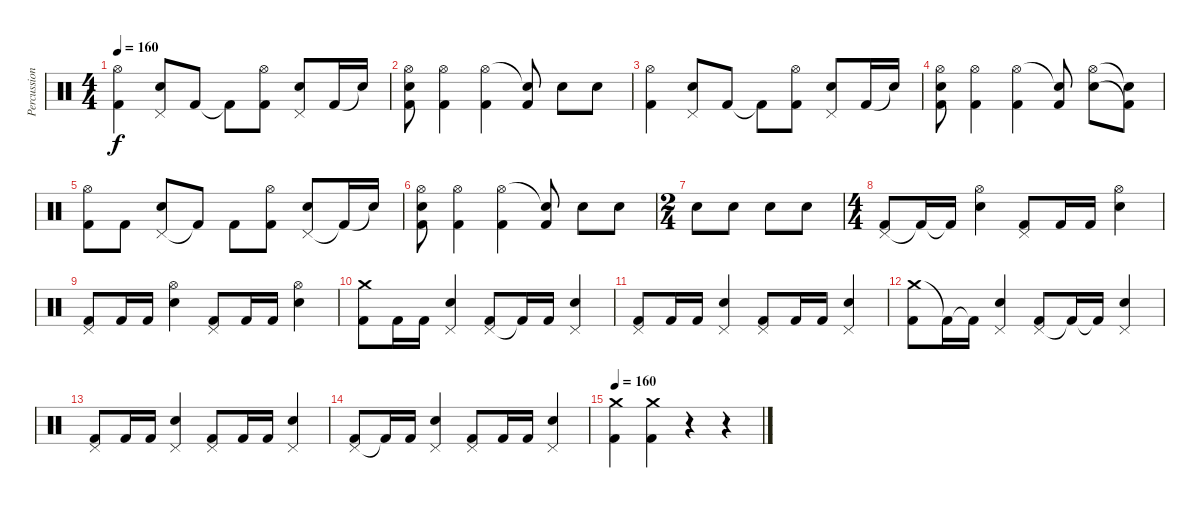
\track ("Percussion" "Percussion") {instrument percussion}
\staff {score}
\articulation defaults
\ts (4 4)
\tempo 160
\clef neutral
\ks c
("Hi-Hat (open)" "Kick (hit) 2").4{dy f} ("Pedal Hi-Hat (hit)" "Snare (hit) 2").8 "Kick (hit) 2".8 "Kick (hit) 2"{t}.8 ("Hi-Hat (open)" "Kick (hit) 2").8 ("Pedal Hi-Hat (hit)" "Snare (hit) 2").8 "Kick (hit) 2".16 "Snare (hit)"{t}.16 |
("Kick (hit) 2" "Hi-Hat (open)" "Snare (hit) 2").8 ("Hi-Hat (open)" "Kick (hit) 2").4 ("Hi-Hat (open)" "Kick (hit) 2").4 ("Snare (hit)"{t} "Kick (hit) 2").8 "Snare (hit) 2".8 "Snare (hit) 2".8 |
("Hi-Hat (open)" "Kick (hit) 2").4 ("Pedal Hi-Hat (hit)" "Snare (hit) 2").8 "Kick (hit) 2".8 "Kick (hit) 2"{t}.8 ("Hi-Hat (open)" "Kick (hit) 2").8 ("Pedal Hi-Hat (hit)" "Snare (hit) 2").8 "Kick (hit) 2".16 "Snare (hit)"{t}.16 |
("Kick (hit) 2" "Hi-Hat (open)" "Snare (hit) 2").8 ("Hi-Hat (open)" "Kick (hit) 2").4 ("Hi-Hat (open)" "Kick (hit) 2").4 ("Snare (hit)"{t} "Kick (hit) 2").8 ("Hi-Hat (open)" "Snare (hit) 2").8 ("Snare (hit)"{t} "Kick (hit) 2"{t}).8 |
("Hi-Hat (open)" "Kick (hit) 2").8 "Kick (hit) 2".8 ("Pedal Hi-Hat (hit)" "Snare (hit) 2").8 "Kick (hit) 2"{t}.8 "Kick (hit) 2".8 ("Hi-Hat (open)" "Kick (hit) 2").8 ("Pedal Hi-Hat (hit)" "Snare (hit) 2").8 "Kick (hit) 2"{t}.16 "Snare (hit)"{t}.16 |
("Kick (hit) 2" "Hi-Hat (open)" "Snare (hit) 2").8 ("Hi-Hat (open)" "Kick (hit) 2").4 ("Hi-Hat (open)" "Kick (hit) 2").4 ("Snare (hit)"{t} "Kick (hit) 2").8 "Snare (hit) 2".8 "Snare (hit) 2".8 |
\ts (2 4)
"Snare (hit) 2".8 "Snare (hit) 2".8 "Snare (hit) 2".8 "Snare (hit) 2".8 |
\ts (4 4)
("Pedal Hi-Hat (hit)" "Kick (hit) 2").8 "Kick (hit) 2"{t}.16 "Kick (hit) 2"{t}.16 ("Hi-Hat (open)" "Snare (hit) 2").4 ("Pedal Hi-Hat (hit)" "Kick (hit) 2").8 "Kick (hit) 2".16 "Kick (hit) 2".16 ("Hi-Hat (open)" "Snare (hit) 2").4 |
("Pedal Hi-Hat (hit)" "Kick (hit) 2").8 "Kick (hit) 2".16 "Kick (hit) 2".16 ("Hi-Hat (open)" "Snare (hit) 2").4 ("Pedal Hi-Hat (hit)" "Kick (hit) 2").8 "Kick (hit) 2".16 "Kick (hit) 2".16 ("Hi-Hat (open)" "Snare (hit) 2").4 |
("Crash medium (hit)" "Kick (hit) 2").8 "Kick (hit) 2".16 "Kick (hit) 2".16 ("Pedal Hi-Hat (hit)" "Snare (hit) 2").4 ("Pedal Hi-Hat (hit)" "Kick (hit) 2").8 "Kick (hit) 2"{t}.16 "Kick (hit) 2".16 ("Pedal Hi-Hat (hit)" "Snare (hit) 2").4 |
("Pedal Hi-Hat (hit)" "Kick (hit) 2").8 "Kick (hit) 2".16 "Kick (hit) 2".16 ("Pedal Hi-Hat (hit)" "Snare (hit) 2").4 ("Pedal Hi-Hat (hit)" "Kick (hit) 2").8 "Kick (hit) 2".16 "Kick (hit) 2".16 ("Pedal Hi-Hat (hit)" "Snare (hit) 2").4 |
("Crash medium (hit)" "Kick (hit) 2").8 "Kick (hit) 2"{t}.16 "Kick (hit) 2"{t}.16 ("Pedal Hi-Hat (hit)" "Snare (hit) 2").4 ("Pedal Hi-Hat (hit)" "Kick (hit) 2").8 "Kick (hit) 2"{t}.16 "Kick (hit) 2"{t}.16 ("Pedal Hi-Hat (hit)" "Snare (hit) 2").4 |
("Pedal Hi-Hat (hit)" "Kick (hit) 2").8 "Kick (hit) 2".16 "Kick (hit) 2".16 ("Pedal Hi-Hat (hit)" "Snare (hit) 2").4 ("Pedal Hi-Hat (hit)" "Kick (hit) 2").8 "Kick (hit) 2".16 "Kick (hit) 2".16 ("Pedal Hi-Hat (hit)" "Snare (hit) 2").4 |
("Pedal Hi-Hat (hit)" "Kick (hit) 2").8 "Kick (hit) 2"{t}.16 "Kick (hit) 2".16 ("Pedal Hi-Hat (hit)" "Snare (hit) 2").4 ("Pedal Hi-Hat (hit)" "Kick (hit) 2").8 "Kick (hit) 2".16 "Kick (hit) 2".16 ("Pedal Hi-Hat (hit)" "Snare (hit) 2").4 |
\tempo 160
("Crash medium (hit)" "Kick (hit) 2").4 ("Crash medium (hit)" "Kick (hit) 2").4 r.4 r.4
